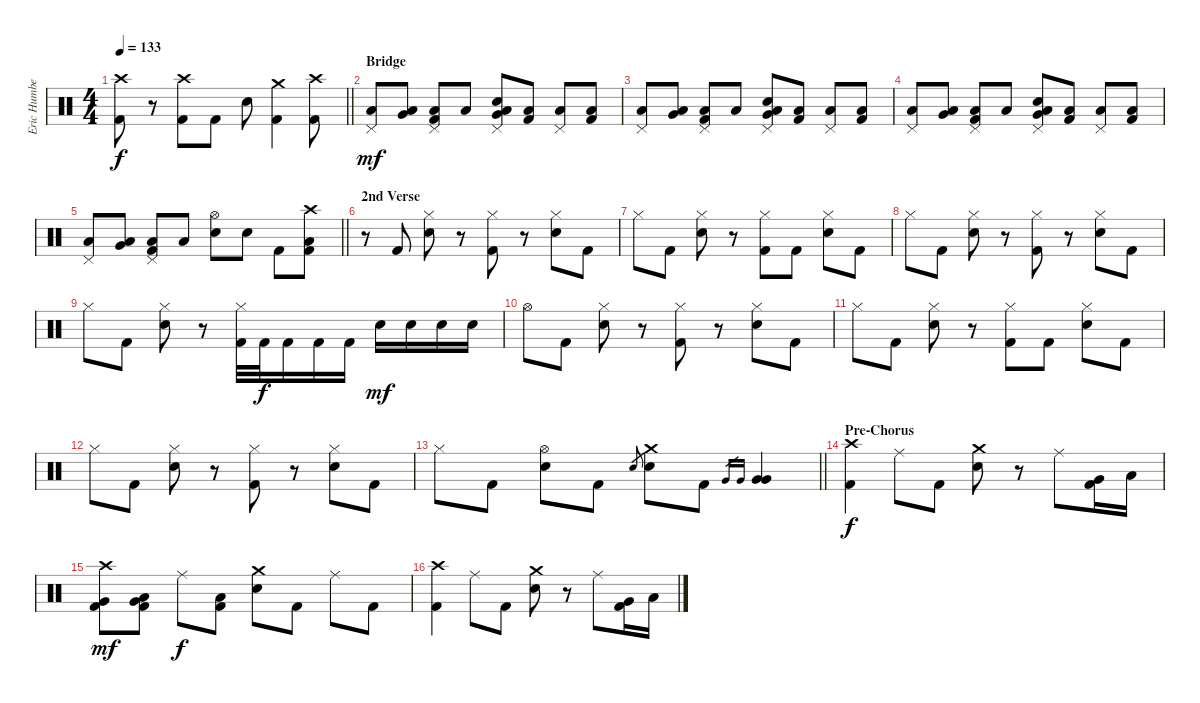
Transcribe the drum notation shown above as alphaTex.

\track ("Eric Humbert (Drums)" "Eric Humbe") {instrument percussion}
\staff {score}
\articulation defaults
\ts (4 4)
\tempo 133
\clef neutral
\barLineRight lightlight
\ks c
("Crash high (hit)" "Kick (hit) 2").8{dy f} r.8 ("Crash high (hit)" "Kick (hit) 2").8 "Kick (hit) 2".8 "Electric Snare (hit)".8 ("Crash medium (hit)" "Kick (hit) 2").4 ("Crash high (hit)" "Kick (hit) 2").8 |
\section ("" "Bridge")
("Pedal Hi-Hat (hit)" "Low Floor Tom (hit)").8{dy mf} ("Very Low Tom (hit)" "Low Floor Tom (hit)").8 ("Pedal Hi-Hat (hit)" "Low Floor Tom (hit)" "Kick (hit) 2").8 "Low Floor Tom (hit)".8 ("Pedal Hi-Hat (hit)" "Very Low Tom (hit)" "Low Floor Tom (hit)" "Electric Snare (hit)").8 ("Low Floor Tom (hit)" "Kick (hit) 2").8 ("Pedal Hi-Hat (hit)" "Low Floor Tom (hit)").8 ("Low Floor Tom (hit)" "Kick (hit) 2").8 |
("Pedal Hi-Hat (hit)" "Low Floor Tom (hit)").8 ("Very Low Tom (hit)" "Low Floor Tom (hit)").8 ("Pedal Hi-Hat (hit)" "Low Floor Tom (hit)" "Kick (hit) 2").8 "Low Floor Tom (hit)".8 ("Pedal Hi-Hat (hit)" "Very Low Tom (hit)" "Low Floor Tom (hit)" "Electric Snare (hit)").8 ("Low Floor Tom (hit)" "Kick (hit) 2").8 ("Pedal Hi-Hat (hit)" "Low Floor Tom (hit)").8 ("Low Floor Tom (hit)" "Kick (hit) 2").8 |
("Pedal Hi-Hat (hit)" "Low Floor Tom (hit)").8 ("Very Low Tom (hit)" "Low Floor Tom (hit)").8 ("Pedal Hi-Hat (hit)" "Low Floor Tom (hit)" "Kick (hit) 2").8 "Low Floor Tom (hit)".8 ("Pedal Hi-Hat (hit)" "Very Low Tom (hit)" "Low Floor Tom (hit)" "Electric Snare (hit)").8 ("Low Floor Tom (hit)" "Kick (hit) 2").8 ("Pedal Hi-Hat (hit)" "Low Floor Tom (hit)").8 ("Low Floor Tom (hit)" "Kick (hit) 2").8 |
\barLineRight lightlight
("Pedal Hi-Hat (hit)" "Low Floor Tom (hit)").8 ("Very Low Tom (hit)" "Low Floor Tom (hit)").8 ("Pedal Hi-Hat (hit)" "Low Floor Tom (hit)" "Kick (hit) 2").8 "Low Floor Tom (hit)".8 ("Hi-Hat (open)" "Electric Snare (hit)").8 "Electric Snare (hit)".8 "Kick (hit) 2".8 ("Crash high (hit)" "Low Floor Tom (hit)" "Kick (hit) 2").8 |
\section ("" "2nd Verse")
r.8 "Kick (hit) 2".8 ("Hi-Hat (closed)" "Electric Snare (hit)").8 r.8 ("Hi-Hat (closed)" "Kick (hit) 2").8 r.8 ("Hi-Hat (closed)" "Electric Snare (hit)").8 "Kick (hit) 2".8 |
"Hi-Hat (closed)".8 "Kick (hit) 2".8 ("Hi-Hat (closed)" "Electric Snare (hit)").8 r.8 ("Hi-Hat (closed)" "Kick (hit) 2").8 "Kick (hit) 2".8 ("Hi-Hat (closed)" "Electric Snare (hit)").8 "Kick (hit) 2".8 |
"Hi-Hat (closed)".8 "Kick (hit) 2".8 ("Hi-Hat (closed)" "Electric Snare (hit)").8 r.8 ("Hi-Hat (closed)" "Kick (hit) 2").8 r.8 ("Hi-Hat (closed)" "Electric Snare (hit)").8 "Kick (hit) 2".8 |
"Hi-Hat (closed)".8 "Kick (hit) 2".8 ("Hi-Hat (closed)" "Electric Snare (hit)").8 r.8 ("Hi-Hat (closed)" "Kick (hit) 2").32 "Kick (hit) 2".32{dy f} "Kick (hit) 2".16 "Kick (hit) 2".16 "Kick (hit) 2".16 "Electric Snare (hit)".16{dy mf} "Electric Snare (hit)".16 "Electric Snare (hit)".16 "Electric Snare (hit)".16 |
"Hi-Hat (open)".8 "Kick (hit) 2".8 ("Hi-Hat (closed)" "Electric Snare (hit)").8 r.8 ("Hi-Hat (closed)" "Kick (hit) 2").8 r.8 ("Hi-Hat (closed)" "Electric Snare (hit)").8 "Kick (hit) 2".8 |
"Hi-Hat (closed)".8 "Kick (hit) 2".8 ("Hi-Hat (closed)" "Electric Snare (hit)").8 r.8 ("Hi-Hat (closed)" "Kick (hit) 2").8 "Kick (hit) 2".8 ("Hi-Hat (closed)" "Electric Snare (hit)").8 "Kick (hit) 2".8 |
"Hi-Hat (closed)".8 "Kick (hit) 2".8 ("Hi-Hat (closed)" "Electric Snare (hit)").8 r.8 ("Hi-Hat (closed)" "Kick (hit) 2").8 r.8 ("Hi-Hat (closed)" "Electric Snare (hit)").8 "Kick (hit) 2".8 |
\barLineRight lightlight "Hi-Hat (closed)".8 "Kick (hit) 2".8
("Hi-Hat (open)" "Electric Snare (hit)").8 "Kick (hit) 2".8 "Electric Snare (hit)".8{gr} ("Crash medium (hit)" "Electric Snare (hit)").8 "Kick (hit) 2".8 "Very Low Tom (hit)".16{gr} "Very Low Tom (hit)".16{gr} ("Very Low Tom (hit)" "Very Low Tom (hit)").4 |
\section ("" "Pre-Chorus")
("Crash high (hit)" "Kick (hit) 2").4{dy f} "Ride (middle)".8 "Kick (hit) 2".8 ("Crash medium (hit)" "Electric Snare (hit)").8 r.8 "Ride (middle)".8 ("Very Low Tom (hit)" "Kick (hit) 2").16 "Low Tom (hit)".16 |
("Crash high (hit)" "Very Low Tom (hit)" "Kick (hit) 2").8{dy mf} ("Very Low Tom (hit)" "Low Floor Tom (hit)" "Kick (hit) 2").8 "Ride (middle)".8{dy f} ("Low Floor Tom (hit)" "Kick (hit) 2").8 ("Crash medium (hit)" "Electric Snare (hit)").8 "Kick (hit) 2".8 "Ride (middle)".8 "Kick (hit) 2".8 |
("Crash high (hit)" "Kick (hit) 2").4 "Ride (middle)".8 "Kick (hit) 2".8 ("Crash medium (hit)" "Electric Snare (hit)").8 r.8 "Ride (middle)".8 ("Very Low Tom (hit)" "Kick (hit) 2").16 "Low Tom (hit)".16
